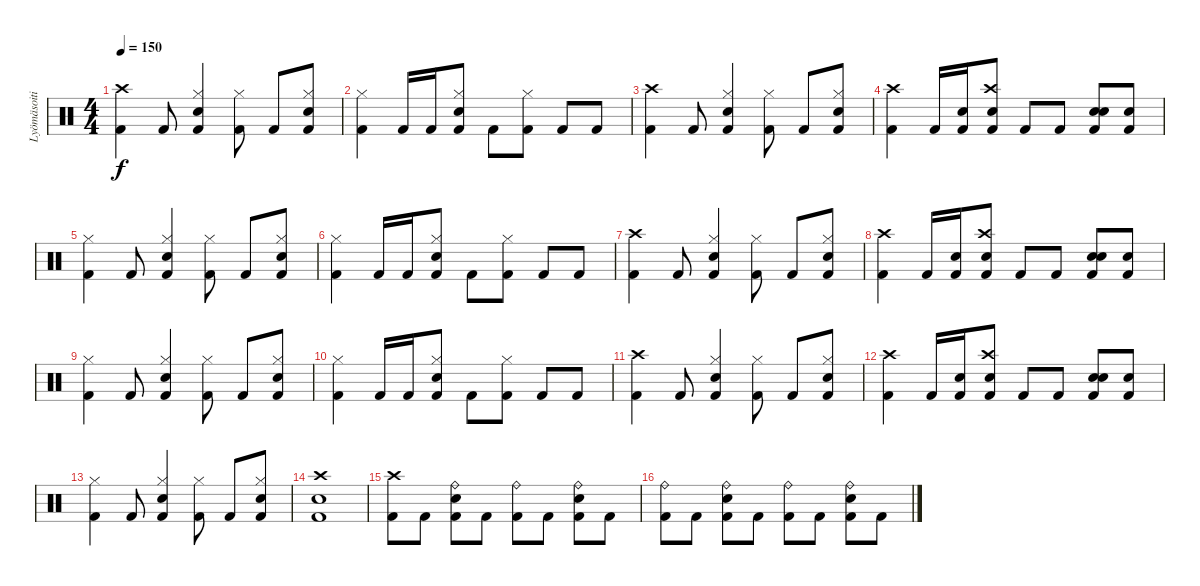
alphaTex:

\track ("Lyömäsoitin" "Lyömäsoiti") {instrument percussion}
\staff {score}
\articulation defaults
\ts (4 4)
\tempo 150
\clef neutral
\ks c
("Kick (hit) 2" "Crash high (hit)").4{dy f} "Kick (hit) 2".8 ("Kick (hit) 2" "Hi-Hat (closed)" "Electric Snare (hit)").4 ("Kick (hit) 2" "Hi-Hat (closed)").8 "Kick (hit) 2".8 ("Kick (hit) 2" "Hi-Hat (closed)" "Electric Snare (hit)").8 |
("Kick (hit) 2" "Hi-Hat (closed)").4 "Kick (hit) 2".16 "Kick (hit) 2".16 ("Kick (hit) 2" "Hi-Hat (closed)" "Electric Snare (hit)").8 "Kick (hit) 2".8 ("Kick (hit) 2" "Hi-Hat (closed)").8 "Kick (hit) 2".8 "Kick (hit) 2".8 |
("Kick (hit) 2" "Crash high (hit)").4 "Kick (hit) 2".8 ("Kick (hit) 2" "Hi-Hat (closed)" "Electric Snare (hit)").4 ("Kick (hit) 2" "Hi-Hat (closed)").8 "Kick (hit) 2".8 ("Kick (hit) 2" "Hi-Hat (closed)" "Electric Snare (hit)").8 |
("Kick (hit) 2" "Crash high (hit)").4 "Kick (hit) 2".16 ("Kick (hit) 2" "Snare (hit)").16 ("Kick (hit) 2" "Crash high (hit)" "Electric Snare (hit)").8 "Kick (hit) 2".8 "Kick (hit) 2".8 ("Kick (hit) 2" "Electric Snare (hit)" "Electric Snare (hit)").8 ("Kick (hit) 2" "Electric Snare (hit)").8 |
("Kick (hit) 2" "Hi-Hat (closed)").4 "Kick (hit) 2".8 ("Kick (hit) 2" "Hi-Hat (closed)" "Electric Snare (hit)").4 ("Kick (hit) 2" "Hi-Hat (closed)").8 "Kick (hit) 2".8 ("Kick (hit) 2" "Hi-Hat (closed)" "Electric Snare (hit)").8 |
("Kick (hit) 2" "Hi-Hat (closed)").4 "Kick (hit) 2".16 "Kick (hit) 2".16 ("Kick (hit) 2" "Hi-Hat (closed)" "Electric Snare (hit)").8 "Kick (hit) 2".8 ("Kick (hit) 2" "Hi-Hat (closed)").8 "Kick (hit) 2".8 "Kick (hit) 2".8 |
("Kick (hit) 2" "Crash high (hit)").4 "Kick (hit) 2".8 ("Kick (hit) 2" "Hi-Hat (closed)" "Electric Snare (hit)").4 ("Kick (hit) 2" "Hi-Hat (closed)").8 "Kick (hit) 2".8 ("Kick (hit) 2" "Hi-Hat (closed)" "Electric Snare (hit)").8 |
("Kick (hit) 2" "Crash high (hit)").4 "Kick (hit) 2".16 ("Kick (hit) 2" "Snare (hit)").16 ("Kick (hit) 2" "Crash high (hit)" "Electric Snare (hit)").8 "Kick (hit) 2".8 "Kick (hit) 2".8 ("Kick (hit) 2" "Electric Snare (hit)" "Electric Snare (hit)").8 ("Kick (hit) 2" "Electric Snare (hit)").8 |
("Kick (hit) 2" "Hi-Hat (closed)").4 "Kick (hit) 2".8 ("Kick (hit) 2" "Hi-Hat (closed)" "Electric Snare (hit)").4 ("Kick (hit) 2" "Hi-Hat (closed)").8 "Kick (hit) 2".8 ("Kick (hit) 2" "Hi-Hat (closed)" "Electric Snare (hit)").8 |
("Kick (hit) 2" "Hi-Hat (closed)").4 "Kick (hit) 2".16 "Kick (hit) 2".16 ("Kick (hit) 2" "Hi-Hat (closed)" "Electric Snare (hit)").8 "Kick (hit) 2".8 ("Kick (hit) 2" "Hi-Hat (closed)").8 "Kick (hit) 2".8 "Kick (hit) 2".8 |
("Kick (hit) 2" "Crash high (hit)").4 "Kick (hit) 2".8 ("Kick (hit) 2" "Hi-Hat (closed)" "Electric Snare (hit)").4 ("Kick (hit) 2" "Hi-Hat (closed)").8 "Kick (hit) 2".8 ("Kick (hit) 2" "Hi-Hat (closed)" "Electric Snare (hit)").8 |
("Kick (hit) 2" "Crash high (hit)").4 "Kick (hit) 2".16 ("Kick (hit) 2" "Snare (hit)").16 ("Kick (hit) 2" "Crash high (hit)" "Electric Snare (hit)").8 "Kick (hit) 2".8 "Kick (hit) 2".8 ("Kick (hit) 2" "Electric Snare (hit)" "Electric Snare (hit)").8 ("Kick (hit) 2" "Electric Snare (hit)").8 |
("Kick (hit) 2" "Hi-Hat (closed)").4 "Kick (hit) 2".8 ("Kick (hit) 2" "Hi-Hat (closed)" "Electric Snare (hit)").4 ("Kick (hit) 2" "Hi-Hat (closed)").8 "Kick (hit) 2".8 ("Kick (hit) 2" "Hi-Hat (closed)" "Electric Snare (hit)").8 |
("Kick (hit) 2" "Electric Snare (hit)" "Crash high (hit)").1 |
("Kick (hit) 2" "Crash high (hit)").8 "Kick (hit) 2".8 ("Kick (hit) 2" "Ride (bell)" "Electric Snare (hit)").8 "Kick (hit) 2".8 ("Kick (hit) 2" "Ride (bell)").8 "Kick (hit) 2".8 ("Kick (hit) 2" "Ride (bell)" "Electric Snare (hit)").8 "Kick (hit) 2".8 |
("Kick (hit) 2" "Ride (bell)").8 "Kick (hit) 2".8 ("Kick (hit) 2" "Ride (bell)" "Electric Snare (hit)").8 "Kick (hit) 2".8 ("Kick (hit) 2" "Ride (bell)").8 "Kick (hit) 2".8 ("Kick (hit) 2" "Ride (bell)" "Electric Snare (hit)").8 "Kick (hit) 2".8
